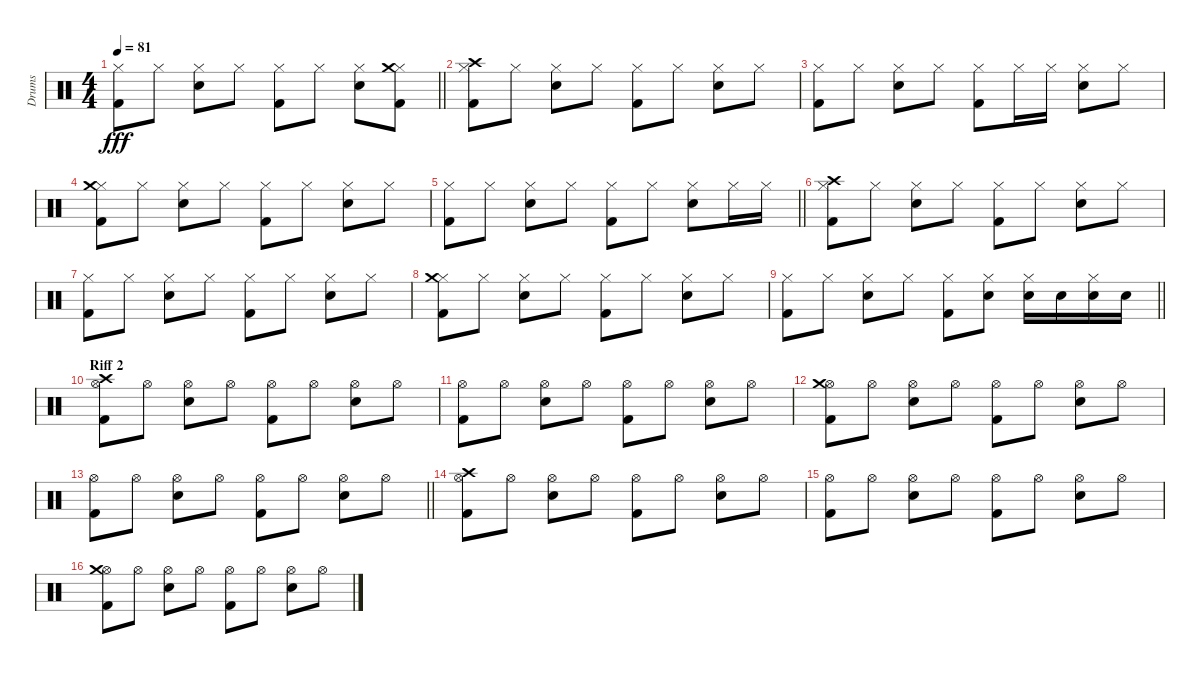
\track ("Drums" "Drums") {instrument percussion}
\staff {score}
\articulation defaults
\ts (4 4)
\tempo 81
\clef neutral
\barLineRight lightlight
\ks c
("Hi-Hat (closed)" "Kick (hit) 2").8{dy fff} "Hi-Hat (closed)".8 ("Hi-Hat (closed)" "Electric Snare (hit)").8 "Hi-Hat (closed)".8 ("Hi-Hat (closed)" "Kick (hit) 2").8 "Hi-Hat (closed)".8 ("Hi-Hat (closed)" "Electric Snare (hit)").8 ("Hi-Hat (closed)" "Crash medium (hit)" "Kick (hit) 2").8 |
("Hi-Hat (closed)" "Crash high (hit)" "Kick (hit) 2").8 "Hi-Hat (closed)".8 ("Hi-Hat (closed)" "Electric Snare (hit)").8 "Hi-Hat (closed)".8 ("Hi-Hat (closed)" "Kick (hit) 2").8 "Hi-Hat (closed)".8 ("Hi-Hat (closed)" "Electric Snare (hit)").8 "Hi-Hat (closed)".8 |
("Hi-Hat (closed)" "Kick (hit) 2").8 "Hi-Hat (closed)".8 ("Hi-Hat (closed)" "Electric Snare (hit)").8 "Hi-Hat (closed)".8 ("Hi-Hat (closed)" "Kick (hit) 2").8 "Hi-Hat (closed)".16 "Hi-Hat (closed)".16 ("Hi-Hat (closed)" "Electric Snare (hit)").8 "Hi-Hat (closed)".8 |
("Hi-Hat (closed)" "Crash medium (hit)" "Kick (hit) 2").8 "Hi-Hat (closed)".8 ("Hi-Hat (closed)" "Electric Snare (hit)").8 "Hi-Hat (closed)".8 ("Hi-Hat (closed)" "Kick (hit) 2").8 "Hi-Hat (closed)".8 ("Hi-Hat (closed)" "Electric Snare (hit)").8 "Hi-Hat (closed)".8 |
\barLineRight lightlight
("Hi-Hat (closed)" "Kick (hit) 2").8 "Hi-Hat (closed)".8 ("Hi-Hat (closed)" "Electric Snare (hit)").8 "Hi-Hat (closed)".8 ("Hi-Hat (closed)" "Kick (hit) 2").8 "Hi-Hat (closed)".8 ("Hi-Hat (closed)" "Electric Snare (hit)").8 "Hi-Hat (closed)".16 "Hi-Hat (closed)".16 |
("Hi-Hat (closed)" "Crash high (hit)" "Kick (hit) 2").8 "Hi-Hat (closed)".8 ("Hi-Hat (closed)" "Electric Snare (hit)").8 "Hi-Hat (closed)".8 ("Hi-Hat (closed)" "Kick (hit) 2").8 "Hi-Hat (closed)".8 ("Hi-Hat (closed)" "Electric Snare (hit)").8 "Hi-Hat (closed)".8 |
("Hi-Hat (closed)" "Kick (hit) 2").8 "Hi-Hat (closed)".8 ("Hi-Hat (closed)" "Electric Snare (hit)").8 "Hi-Hat (closed)".8 ("Hi-Hat (closed)" "Kick (hit) 2").8 "Hi-Hat (closed)".8 ("Hi-Hat (closed)" "Electric Snare (hit)").8 "Hi-Hat (closed)".8 |
("Hi-Hat (closed)" "Crash medium (hit)" "Kick (hit) 2").8 "Hi-Hat (closed)".8 ("Hi-Hat (closed)" "Electric Snare (hit)").8 "Hi-Hat (closed)".8 ("Hi-Hat (closed)" "Kick (hit) 2").8 "Hi-Hat (closed)".8 ("Hi-Hat (closed)" "Electric Snare (hit)").8 "Hi-Hat (closed)".8 |
\barLineRight lightlight
("Hi-Hat (closed)" "Kick (hit) 2").8 "Hi-Hat (closed)".8 ("Hi-Hat (closed)" "Electric Snare (hit)").8 "Hi-Hat (closed)".8 ("Hi-Hat (closed)" "Kick (hit) 2").8 ("Hi-Hat (closed)" "Electric Snare (hit)").8 ("Hi-Hat (closed)" "Electric Snare (hit)").16 "Electric Snare (hit)".16 ("Hi-Hat (closed)" "Electric Snare (hit)").16 "Electric Snare (hit)".16 |
\section ("" "Riff 2")
("Hi-Hat (open)" "Crash high (hit)" "Kick (hit) 2").8 "Hi-Hat (open)".8 ("Hi-Hat (open)" "Electric Snare (hit)").8 "Hi-Hat (open)".8 ("Hi-Hat (open)" "Kick (hit) 2").8 "Hi-Hat (open)".8 ("Hi-Hat (open)" "Electric Snare (hit)").8 "Hi-Hat (open)".8 |
("Hi-Hat (open)" "Kick (hit) 2").8 "Hi-Hat (open)".8 ("Hi-Hat (open)" "Electric Snare (hit)").8 "Hi-Hat (open)".8 ("Hi-Hat (open)" "Kick (hit) 2").8 "Hi-Hat (open)".8 ("Hi-Hat (open)" "Electric Snare (hit)").8 "Hi-Hat (open)".8 |
("Hi-Hat (open)" "Crash medium (hit)" "Kick (hit) 2").8 "Hi-Hat (open)".8 ("Hi-Hat (open)" "Electric Snare (hit)").8 "Hi-Hat (open)".8 ("Hi-Hat (open)" "Kick (hit) 2").8 "Hi-Hat (open)".8 ("Hi-Hat (open)" "Electric Snare (hit)").8 "Hi-Hat (open)".8 |
\barLineRight lightlight
("Hi-Hat (open)" "Kick (hit) 2").8 "Hi-Hat (open)".8 ("Hi-Hat (open)" "Electric Snare (hit)").8 "Hi-Hat (open)".8 ("Hi-Hat (open)" "Kick (hit) 2").8 "Hi-Hat (open)".8 ("Hi-Hat (open)" "Electric Snare (hit)").8 "Hi-Hat (open)".8 |
("Hi-Hat (open)" "Crash high (hit)" "Kick (hit) 2").8 "Hi-Hat (open)".8 ("Hi-Hat (open)" "Electric Snare (hit)").8 "Hi-Hat (open)".8 ("Hi-Hat (open)" "Kick (hit) 2").8 "Hi-Hat (open)".8 ("Hi-Hat (open)" "Electric Snare (hit)").8 "Hi-Hat (open)".8 |
("Hi-Hat (open)" "Kick (hit) 2").8 "Hi-Hat (open)".8 ("Hi-Hat (open)" "Electric Snare (hit)").8 "Hi-Hat (open)".8 ("Hi-Hat (open)" "Kick (hit) 2").8 "Hi-Hat (open)".8 ("Hi-Hat (open)" "Electric Snare (hit)").8 "Hi-Hat (open)".8 |
("Hi-Hat (open)" "Crash medium (hit)" "Kick (hit) 2").8 "Hi-Hat (open)".8 ("Hi-Hat (open)" "Electric Snare (hit)").8 "Hi-Hat (open)".8 ("Hi-Hat (open)" "Kick (hit) 2").8 "Hi-Hat (open)".8 ("Hi-Hat (open)" "Electric Snare (hit)").8 "Hi-Hat (open)".8
